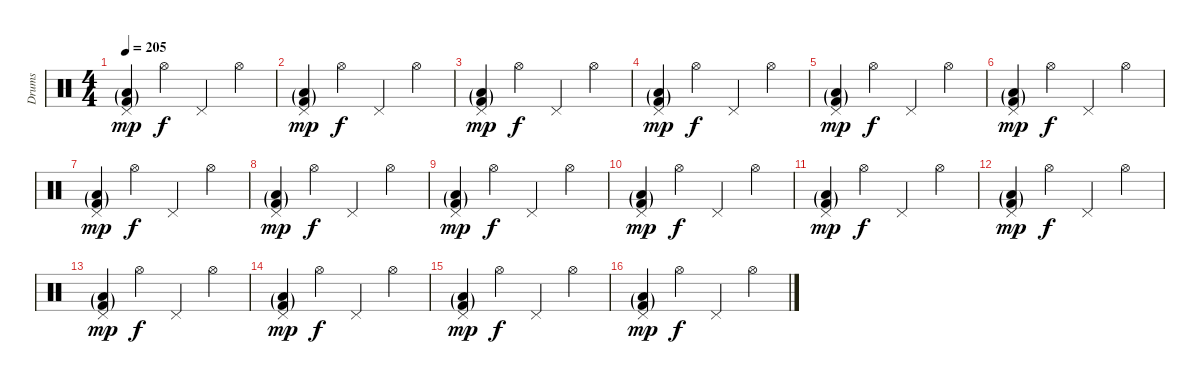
\track ("Drums" "Drums") {instrument percussion}
\staff {score}
\articulation defaults
\ts (4 4)
\tempo 205
\clef neutral
\ks c
("Pedal Hi-Hat (hit)" "Low Floor Tom (hit)"{g} "Kick (hit) 2"{g}).4{dy mp} "Hi-Hat (open)".4{dy f} "Pedal Hi-Hat (hit)".4 "Hi-Hat (open)".4 |
("Pedal Hi-Hat (hit)" "Low Floor Tom (hit)"{g} "Kick (hit) 2"{g}).4{dy mp} "Hi-Hat (open)".4{dy f} "Pedal Hi-Hat (hit)".4 "Hi-Hat (open)".4 |
("Pedal Hi-Hat (hit)" "Low Floor Tom (hit)"{g} "Kick (hit) 2"{g}).4{dy mp} "Hi-Hat (open)".4{dy f} "Pedal Hi-Hat (hit)".4 "Hi-Hat (open)".4 |
("Pedal Hi-Hat (hit)" "Low Floor Tom (hit)"{g} "Kick (hit) 2"{g}).4{dy mp} "Hi-Hat (open)".4{dy f} "Pedal Hi-Hat (hit)".4 "Hi-Hat (open)".4 |
("Pedal Hi-Hat (hit)" "Low Floor Tom (hit)"{g} "Kick (hit) 2"{g}).4{dy mp} "Hi-Hat (open)".4{dy f} "Pedal Hi-Hat (hit)".4 "Hi-Hat (open)".4 |
("Pedal Hi-Hat (hit)" "Low Floor Tom (hit)"{g} "Kick (hit) 2"{g}).4{dy mp} "Hi-Hat (open)".4{dy f} "Pedal Hi-Hat (hit)".4 "Hi-Hat (open)".4 |
("Pedal Hi-Hat (hit)" "Low Floor Tom (hit)"{g} "Kick (hit) 2"{g}).4{dy mp} "Hi-Hat (open)".4{dy f} "Pedal Hi-Hat (hit)".4 "Hi-Hat (open)".4 |
("Pedal Hi-Hat (hit)" "Low Floor Tom (hit)"{g} "Kick (hit) 2"{g}).4{dy mp} "Hi-Hat (open)".4{dy f} "Pedal Hi-Hat (hit)".4 "Hi-Hat (open)".4 |
("Pedal Hi-Hat (hit)" "Low Floor Tom (hit)"{g} "Kick (hit) 2"{g}).4{dy mp} "Hi-Hat (open)".4{dy f} "Pedal Hi-Hat (hit)".4 "Hi-Hat (open)".4 |
("Pedal Hi-Hat (hit)" "Low Floor Tom (hit)"{g} "Kick (hit) 2"{g}).4{dy mp} "Hi-Hat (open)".4{dy f} "Pedal Hi-Hat (hit)".4 "Hi-Hat (open)".4 |
("Pedal Hi-Hat (hit)" "Low Floor Tom (hit)"{g} "Kick (hit) 2"{g}).4{dy mp} "Hi-Hat (open)".4{dy f} "Pedal Hi-Hat (hit)".4 "Hi-Hat (open)".4 |
("Pedal Hi-Hat (hit)" "Low Floor Tom (hit)"{g} "Kick (hit) 2"{g}).4{dy mp} "Hi-Hat (open)".4{dy f} "Pedal Hi-Hat (hit)".4 "Hi-Hat (open)".4 |
("Pedal Hi-Hat (hit)" "Low Floor Tom (hit)"{g} "Kick (hit) 2"{g}).4{dy mp} "Hi-Hat (open)".4{dy f} "Pedal Hi-Hat (hit)".4 "Hi-Hat (open)".4 |
("Pedal Hi-Hat (hit)" "Low Floor Tom (hit)"{g} "Kick (hit) 2"{g}).4{dy mp} "Hi-Hat (open)".4{dy f} "Pedal Hi-Hat (hit)".4 "Hi-Hat (open)".4 |
("Pedal Hi-Hat (hit)" "Low Floor Tom (hit)"{g} "Kick (hit) 2"{g}).4{dy mp} "Hi-Hat (open)".4{dy f} "Pedal Hi-Hat (hit)".4 "Hi-Hat (open)".4 |
("Pedal Hi-Hat (hit)" "Low Floor Tom (hit)"{g} "Kick (hit) 2"{g}).4{dy mp} "Hi-Hat (open)".4{dy f} "Pedal Hi-Hat (hit)".4 "Hi-Hat (open)".4
